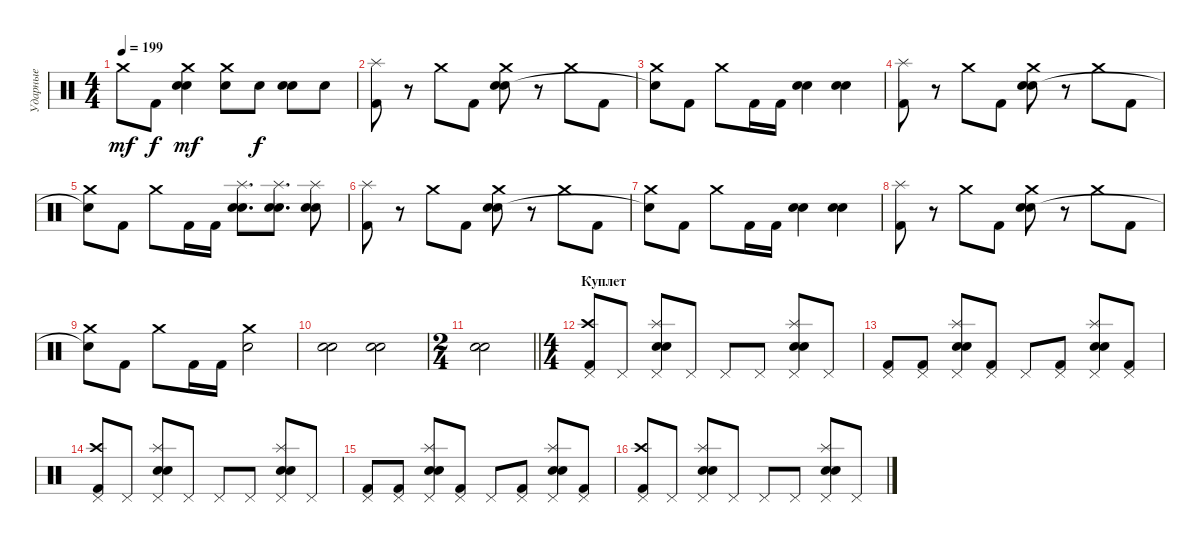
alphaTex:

\track ("Ударные" "Ударные") {instrument percussion}
\staff {score}
\articulation defaults
\ts (4 4)
\tempo 199
\clef neutral
\ks c "Crash medium (hit)".8{dy mf} "Kick (hit) 2".8{dy f}
("Crash medium (hit)" "Electric Snare (hit)" "Snare (hit) 2").4{dy mf} ("Crash medium (hit)" "Electric Snare (hit)").8 "Electric Snare (hit)".8{dy f} ("Electric Snare (hit)" "Snare (hit) 2").8 "Electric Snare (hit)".8 |
("Splash (hit)" "Kick (hit) 2").8 r.8 "Crash medium (hit)".8 "Kick (hit) 2".8 ("Crash medium (hit)" "Electric Snare (hit)" "Snare (hit) 2").8 r.8 "Crash medium (hit)".8 "Kick (hit) 2".8 |
("Crash medium (hit)" "Snare (hit)"{t}).8 "Kick (hit) 2".8 "Crash medium (hit)".8 "Kick (hit) 2".16 "Kick (hit) 2".16 ("Electric Snare (hit)" "Snare (hit) 2").4 ("Electric Snare (hit)" "Snare (hit) 2").4 |
("Splash (hit)" "Kick (hit) 2").8 r.8 "Crash medium (hit)".8 "Kick (hit) 2".8 ("Crash medium (hit)" "Electric Snare (hit)" "Snare (hit) 2").8 r.8 "Crash medium (hit)".8 "Kick (hit) 2".8 |
("Crash medium (hit)" "Snare (hit)"{t}).8 "Kick (hit) 2".8 "Crash medium (hit)".8 "Kick (hit) 2".16 "Kick (hit) 2".16 ("Splash (hit)" "Electric Snare (hit)" "Snare (hit) 2").8{d} ("Splash (hit)" "Electric Snare (hit)" "Snare (hit) 2").8{d} ("Splash (hit)" "Electric Snare (hit)" "Snare (hit) 2").8 |
("Splash (hit)" "Kick (hit) 2").8 r.8 "Crash medium (hit)".8 "Kick (hit) 2".8 ("Crash medium (hit)" "Electric Snare (hit)" "Snare (hit) 2").8 r.8 "Crash medium (hit)".8 "Kick (hit) 2".8 |
("Crash medium (hit)" "Snare (hit)"{t}).8 "Kick (hit) 2".8 "Crash medium (hit)".8 "Kick (hit) 2".16 "Kick (hit) 2".16 ("Electric Snare (hit)" "Snare (hit) 2").4 ("Electric Snare (hit)" "Snare (hit) 2").4 |
("Splash (hit)" "Kick (hit) 2").8 r.8 "Crash medium (hit)".8 "Kick (hit) 2".8 ("Crash medium (hit)" "Electric Snare (hit)" "Snare (hit) 2").8 r.8 "Crash medium (hit)".8 "Kick (hit) 2".8 |
("Crash medium (hit)" "Snare (hit)"{t}).8 "Kick (hit) 2".8 "Crash medium (hit)".8 "Kick (hit) 2".16 "Kick (hit) 2".16 ("Crash medium (hit)" "Electric Snare (hit)").2 |
("Electric Snare (hit)" "Snare (hit) 2").2 ("Electric Snare (hit)" "Snare (hit) 2").2 |
\ts (2 4)
\barLineRight lightlight
("Electric Snare (hit)" "Snare (hit) 2").2 |
\ts (4 4)
\section ("" "Куплет")
("Crash high (hit)" "Pedal Hi-Hat (hit)" "Kick (hit) 2").8 "Pedal Hi-Hat (hit)".8 ("Splash (hit)" "Pedal Hi-Hat (hit)" "Electric Snare (hit)" "Snare (hit) 2").8 "Pedal Hi-Hat (hit)".8 "Pedal Hi-Hat (hit)".8 "Pedal Hi-Hat (hit)".8 ("Splash (hit)" "Pedal Hi-Hat (hit)" "Electric Snare (hit)" "Snare (hit) 2").8 "Pedal Hi-Hat (hit)".8 |
("Pedal Hi-Hat (hit)" "Kick (hit) 2").8 ("Pedal Hi-Hat (hit)" "Kick (hit) 2").8 ("Splash (hit)" "Pedal Hi-Hat (hit)" "Electric Snare (hit)" "Snare (hit) 2").8 ("Pedal Hi-Hat (hit)" "Kick (hit) 2").8 "Pedal Hi-Hat (hit)".8 ("Pedal Hi-Hat (hit)" "Kick (hit) 2").8 ("Splash (hit)" "Pedal Hi-Hat (hit)" "Electric Snare (hit)" "Snare (hit) 2").8 ("Pedal Hi-Hat (hit)" "Kick (hit) 2").8 |
("Crash high (hit)" "Pedal Hi-Hat (hit)" "Kick (hit) 2").8 "Pedal Hi-Hat (hit)".8 ("Splash (hit)" "Pedal Hi-Hat (hit)" "Electric Snare (hit)" "Snare (hit) 2").8 "Pedal Hi-Hat (hit)".8 "Pedal Hi-Hat (hit)".8 "Pedal Hi-Hat (hit)".8 ("Splash (hit)" "Pedal Hi-Hat (hit)" "Electric Snare (hit)" "Snare (hit) 2").8 "Pedal Hi-Hat (hit)".8 |
("Pedal Hi-Hat (hit)" "Kick (hit) 2").8 ("Pedal Hi-Hat (hit)" "Kick (hit) 2").8 ("Splash (hit)" "Pedal Hi-Hat (hit)" "Electric Snare (hit)" "Snare (hit) 2").8 ("Pedal Hi-Hat (hit)" "Kick (hit) 2").8 "Pedal Hi-Hat (hit)".8 ("Pedal Hi-Hat (hit)" "Kick (hit) 2").8 ("Splash (hit)" "Pedal Hi-Hat (hit)" "Electric Snare (hit)" "Snare (hit) 2").8 ("Pedal Hi-Hat (hit)" "Kick (hit) 2").8 |
("Crash high (hit)" "Pedal Hi-Hat (hit)" "Kick (hit) 2").8 "Pedal Hi-Hat (hit)".8 ("Splash (hit)" "Pedal Hi-Hat (hit)" "Electric Snare (hit)" "Snare (hit) 2").8 "Pedal Hi-Hat (hit)".8 "Pedal Hi-Hat (hit)".8 "Pedal Hi-Hat (hit)".8 ("Splash (hit)" "Pedal Hi-Hat (hit)" "Electric Snare (hit)" "Snare (hit) 2").8 "Pedal Hi-Hat (hit)".8
